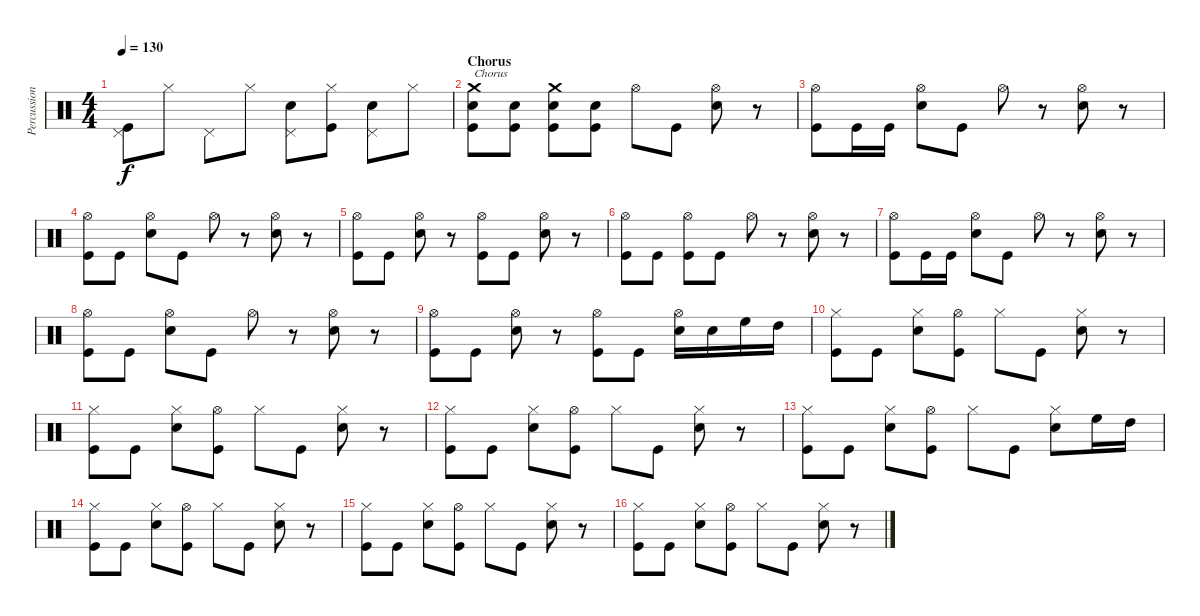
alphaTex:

\track ("Percussion" "Percussion") {instrument percussion}
\staff {score}
\articulation defaults
\ts (4 4)
\tempo 130
\clef neutral
\ks c
("Pedal Hi-Hat (hit)" "Kick (hit)").8{dy f} "Hi-Hat (closed)".8 "Pedal Hi-Hat (hit)".8 "Hi-Hat (closed)".8 ("Pedal Hi-Hat (hit)" "Snare (hit) 2").8 ("Hi-Hat (closed)" "Kick (hit)").8 ("Pedal Hi-Hat (hit)" "Snare (hit) 2").8 "Hi-Hat (closed)".8 |
\section ("" "Chorus")
("Crash medium (hit)" "Snare (hit) 2" "Kick (hit)").8{txt "Chorus"} ("Snare (hit) 2" "Kick (hit)").8 ("Crash medium (hit)" "Snare (hit) 2" "Kick (hit)").8 ("Snare (hit) 2" "Kick (hit)").8 "Hi-Hat (open)".8 "Kick (hit)".8 ("Hi-Hat (open)" "Snare (hit) 2").8 r.8 |
("Hi-Hat (open)" "Kick (hit)").8 "Kick (hit)".16 "Kick (hit)".16 ("Hi-Hat (open)" "Snare (hit) 2").8 "Kick (hit)".8 "Hi-Hat (open)".8 r.8 ("Hi-Hat (open)" "Snare (hit) 2").8 r.8 |
("Hi-Hat (open)" "Kick (hit)").8 "Kick (hit)".8 ("Hi-Hat (open)" "Snare (hit) 2").8 "Kick (hit)".8 "Hi-Hat (open)".8 r.8 ("Hi-Hat (open)" "Snare (hit) 2").8 r.8 |
("Hi-Hat (open)" "Kick (hit)").8 "Kick (hit)".8 ("Hi-Hat (open)" "Snare (hit) 2").8 r.8 ("Hi-Hat (open)" "Kick (hit)").8 "Kick (hit)".8 ("Hi-Hat (open)" "Snare (hit) 2").8 r.8 |
("Hi-Hat (open)" "Kick (hit)").8 "Kick (hit)".8 ("Hi-Hat (open)" "Kick (hit)").8 "Kick (hit)".8 "Hi-Hat (open)".8 r.8 ("Hi-Hat (open)" "Snare (hit) 2").8 r.8 |
("Hi-Hat (open)" "Kick (hit)").8 "Kick (hit)".16 "Kick (hit)".16 ("Hi-Hat (open)" "Snare (hit) 2").8 "Kick (hit)".8 "Hi-Hat (open)".8 r.8 ("Hi-Hat (open)" "Snare (hit) 2").8 r.8 |
("Hi-Hat (open)" "Kick (hit)").8 "Kick (hit)".8 ("Hi-Hat (open)" "Snare (hit) 2").8 "Kick (hit)".8 "Hi-Hat (open)".8 r.8 ("Hi-Hat (open)" "Snare (hit) 2").8 r.8 |
("Hi-Hat (open)" "Kick (hit)").8 "Kick (hit)".8 ("Hi-Hat (open)" "Snare (hit) 2").8 r.8 ("Hi-Hat (open)" "Kick (hit)").8 "Kick (hit)".8 ("Hi-Hat (open)" "Snare (hit) 2").16 "Snare (hit) 2".16 "High Floor Tom (hit)".16 "High Tom (hit)".16 |
("Hi-Hat (closed)" "Kick (hit)").8 "Kick (hit)".8 ("Hi-Hat (closed)" "Snare (hit) 2").8 ("Hi-Hat (open)" "Kick (hit)").8 "Hi-Hat (closed)".8 "Kick (hit)".8 ("Hi-Hat (closed)" "Snare (hit) 2").8 r.8 |
("Hi-Hat (closed)" "Kick (hit)").8 "Kick (hit)".8 ("Hi-Hat (closed)" "Snare (hit) 2").8 ("Hi-Hat (open)" "Kick (hit)").8 "Hi-Hat (closed)".8 "Kick (hit)".8 ("Hi-Hat (closed)" "Snare (hit) 2").8 r.8 |
("Hi-Hat (closed)" "Kick (hit)").8 "Kick (hit)".8 ("Hi-Hat (closed)" "Snare (hit) 2").8 ("Hi-Hat (open)" "Kick (hit)").8 "Hi-Hat (closed)".8 "Kick (hit)".8 ("Hi-Hat (closed)" "Snare (hit) 2").8 r.8 |
("Hi-Hat (closed)" "Kick (hit)").8 "Kick (hit)".8 ("Hi-Hat (closed)" "Snare (hit) 2").8 ("Hi-Hat (open)" "Kick (hit)").8 "Hi-Hat (closed)".8 "Kick (hit)".8 ("Hi-Hat (closed)" "Snare (hit) 2").8 "High Floor Tom (hit)".16 "High Tom (hit)".16 |
("Hi-Hat (closed)" "Kick (hit)").8 "Kick (hit)".8 ("Hi-Hat (closed)" "Snare (hit) 2").8 ("Hi-Hat (open)" "Kick (hit)").8 "Hi-Hat (closed)".8 "Kick (hit)".8 ("Hi-Hat (closed)" "Snare (hit) 2").8 r.8 |
("Hi-Hat (closed)" "Kick (hit)").8 "Kick (hit)".8 ("Hi-Hat (closed)" "Snare (hit) 2").8 ("Hi-Hat (open)" "Kick (hit)").8 "Hi-Hat (closed)".8 "Kick (hit)".8 ("Hi-Hat (closed)" "Snare (hit) 2").8 r.8 |
("Hi-Hat (closed)" "Kick (hit)").8 "Kick (hit)".8 ("Hi-Hat (closed)" "Snare (hit) 2").8 ("Hi-Hat (open)" "Kick (hit)").8 "Hi-Hat (closed)".8 "Kick (hit)".8 ("Hi-Hat (closed)" "Snare (hit) 2").8 r.8
